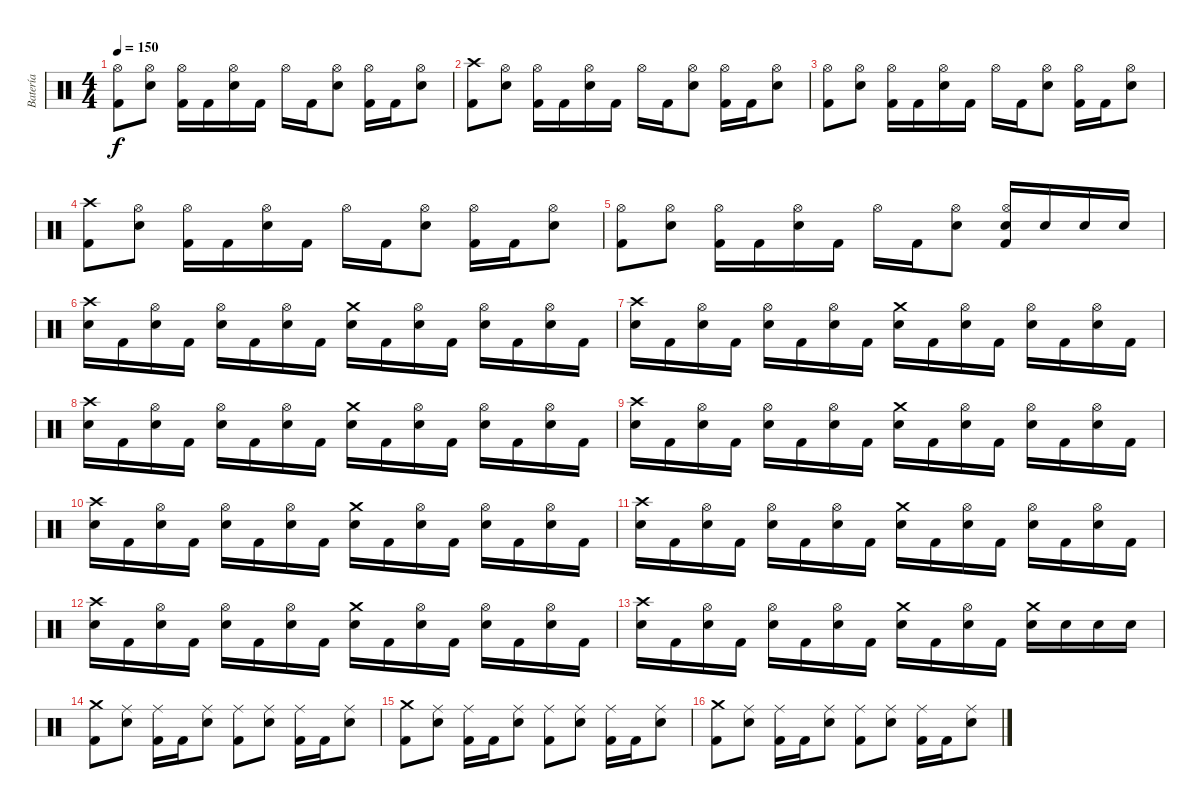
\track ("Batería" "Batería") {instrument percussion}
\staff {score}
\articulation defaults
\ts (4 4)
\tempo 150
\clef neutral
\ks c
("Kick (hit) 2" "Hi-Hat (open)").8{dy f} ("Electric Snare (hit)" "Hi-Hat (open)").8 ("Kick (hit) 2" "Hi-Hat (open)").16 "Kick (hit) 2".16 ("Electric Snare (hit)" "Hi-Hat (open)").16 "Kick (hit) 2".16 "Hi-Hat (open)".16 "Kick (hit) 2".16 ("Electric Snare (hit)" "Hi-Hat (open)").8 ("Kick (hit) 2" "Hi-Hat (open)").16 "Kick (hit) 2".16 ("Electric Snare (hit)" "Hi-Hat (open)").8 |
("Kick (hit) 2" "Crash high (hit)").8 ("Electric Snare (hit)" "Hi-Hat (open)").8 ("Kick (hit) 2" "Hi-Hat (open)").16 "Kick (hit) 2".16 ("Electric Snare (hit)" "Hi-Hat (open)").16 "Kick (hit) 2".16 "Hi-Hat (open)".16 "Kick (hit) 2".16 ("Electric Snare (hit)" "Hi-Hat (open)").8 ("Kick (hit) 2" "Hi-Hat (open)").16 "Kick (hit) 2".16 ("Electric Snare (hit)" "Hi-Hat (open)").8 |
("Kick (hit) 2" "Hi-Hat (open)").8 ("Electric Snare (hit)" "Hi-Hat (open)").8 ("Kick (hit) 2" "Hi-Hat (open)").16 "Kick (hit) 2".16 ("Electric Snare (hit)" "Hi-Hat (open)").16 "Kick (hit) 2".16 "Hi-Hat (open)".16 "Kick (hit) 2".16 ("Electric Snare (hit)" "Hi-Hat (open)").8 ("Kick (hit) 2" "Hi-Hat (open)").16 "Kick (hit) 2".16 ("Electric Snare (hit)" "Hi-Hat (open)").8 |
("Kick (hit) 2" "Crash high (hit)").8 ("Electric Snare (hit)" "Hi-Hat (open)").8 ("Kick (hit) 2" "Hi-Hat (open)").16 "Kick (hit) 2".16 ("Electric Snare (hit)" "Hi-Hat (open)").16 "Kick (hit) 2".16 "Hi-Hat (open)".16 "Kick (hit) 2".16 ("Electric Snare (hit)" "Hi-Hat (open)").8 ("Kick (hit) 2" "Hi-Hat (open)").16 "Kick (hit) 2".16 ("Electric Snare (hit)" "Hi-Hat (open)").8 |
("Kick (hit) 2" "Hi-Hat (open)").8 ("Electric Snare (hit)" "Hi-Hat (open)").8 ("Kick (hit) 2" "Hi-Hat (open)").16 "Kick (hit) 2".16 ("Electric Snare (hit)" "Hi-Hat (open)").16 "Kick (hit) 2".16 "Hi-Hat (open)".16 "Kick (hit) 2".16 ("Electric Snare (hit)" "Hi-Hat (open)").8 ("Kick (hit) 2" "Electric Snare (hit)" "Hi-Hat (open)").16 "Electric Snare (hit)".16 "Electric Snare (hit)".16 "Electric Snare (hit)".16 |
("Electric Snare (hit)" "Crash high (hit)").16 "Kick (hit) 2".16 ("Electric Snare (hit)" "Hi-Hat (open)").16 "Kick (hit) 2".16 ("Electric Snare (hit)" "Hi-Hat (open)").16 "Kick (hit) 2".16 ("Electric Snare (hit)" "Hi-Hat (open)").16 "Kick (hit) 2".16 ("Electric Snare (hit)" "Crash medium (hit)").16 "Kick (hit) 2".16 ("Electric Snare (hit)" "Hi-Hat (open)").16 "Kick (hit) 2".16 ("Electric Snare (hit)" "Hi-Hat (open)").16 "Kick (hit) 2".16 ("Electric Snare (hit)" "Hi-Hat (open)").16 "Kick (hit) 2".16 |
("Electric Snare (hit)" "Crash high (hit)").16 "Kick (hit) 2".16 ("Electric Snare (hit)" "Hi-Hat (open)").16 "Kick (hit) 2".16 ("Electric Snare (hit)" "Hi-Hat (open)").16 "Kick (hit) 2".16 ("Electric Snare (hit)" "Hi-Hat (open)").16 "Kick (hit) 2".16 ("Electric Snare (hit)" "Crash medium (hit)").16 "Kick (hit) 2".16 ("Electric Snare (hit)" "Hi-Hat (open)").16 "Kick (hit) 2".16 ("Electric Snare (hit)" "Hi-Hat (open)").16 "Kick (hit) 2".16 ("Electric Snare (hit)" "Hi-Hat (open)").16 "Kick (hit) 2".16 |
("Electric Snare (hit)" "Crash high (hit)").16 "Kick (hit) 2".16 ("Electric Snare (hit)" "Hi-Hat (open)").16 "Kick (hit) 2".16 ("Electric Snare (hit)" "Hi-Hat (open)").16 "Kick (hit) 2".16 ("Electric Snare (hit)" "Hi-Hat (open)").16 "Kick (hit) 2".16 ("Electric Snare (hit)" "Crash medium (hit)").16 "Kick (hit) 2".16 ("Electric Snare (hit)" "Hi-Hat (open)").16 "Kick (hit) 2".16 ("Electric Snare (hit)" "Hi-Hat (open)").16 "Kick (hit) 2".16 ("Electric Snare (hit)" "Hi-Hat (open)").16 "Kick (hit) 2".16 |
("Electric Snare (hit)" "Crash high (hit)").16 "Kick (hit) 2".16 ("Electric Snare (hit)" "Hi-Hat (open)").16 "Kick (hit) 2".16 ("Electric Snare (hit)" "Hi-Hat (open)").16 "Kick (hit) 2".16 ("Electric Snare (hit)" "Hi-Hat (open)").16 "Kick (hit) 2".16 ("Electric Snare (hit)" "Crash medium (hit)").16 "Kick (hit) 2".16 ("Electric Snare (hit)" "Hi-Hat (open)").16 "Kick (hit) 2".16 ("Electric Snare (hit)" "Hi-Hat (open)").16 "Kick (hit) 2".16 ("Electric Snare (hit)" "Hi-Hat (open)").16 "Kick (hit) 2".16 |
("Electric Snare (hit)" "Crash high (hit)").16 "Kick (hit) 2".16 ("Electric Snare (hit)" "Hi-Hat (open)").16 "Kick (hit) 2".16 ("Electric Snare (hit)" "Hi-Hat (open)").16 "Kick (hit) 2".16 ("Electric Snare (hit)" "Hi-Hat (open)").16 "Kick (hit) 2".16 ("Electric Snare (hit)" "Crash medium (hit)").16 "Kick (hit) 2".16 ("Electric Snare (hit)" "Hi-Hat (open)").16 "Kick (hit) 2".16 ("Electric Snare (hit)" "Hi-Hat (open)").16 "Kick (hit) 2".16 ("Electric Snare (hit)" "Hi-Hat (open)").16 "Kick (hit) 2".16 |
("Electric Snare (hit)" "Crash high (hit)").16 "Kick (hit) 2".16 ("Electric Snare (hit)" "Hi-Hat (open)").16 "Kick (hit) 2".16 ("Electric Snare (hit)" "Hi-Hat (open)").16 "Kick (hit) 2".16 ("Electric Snare (hit)" "Hi-Hat (open)").16 "Kick (hit) 2".16 ("Electric Snare (hit)" "Crash medium (hit)").16 "Kick (hit) 2".16 ("Electric Snare (hit)" "Hi-Hat (open)").16 "Kick (hit) 2".16 ("Electric Snare (hit)" "Hi-Hat (open)").16 "Kick (hit) 2".16 ("Electric Snare (hit)" "Hi-Hat (open)").16 "Kick (hit) 2".16 |
("Electric Snare (hit)" "Crash high (hit)").16 "Kick (hit) 2".16 ("Electric Snare (hit)" "Hi-Hat (open)").16 "Kick (hit) 2".16 ("Electric Snare (hit)" "Hi-Hat (open)").16 "Kick (hit) 2".16 ("Electric Snare (hit)" "Hi-Hat (open)").16 "Kick (hit) 2".16 ("Electric Snare (hit)" "Crash medium (hit)").16 "Kick (hit) 2".16 ("Electric Snare (hit)" "Hi-Hat (open)").16 "Kick (hit) 2".16 ("Electric Snare (hit)" "Hi-Hat (open)").16 "Kick (hit) 2".16 ("Electric Snare (hit)" "Hi-Hat (open)").16 "Kick (hit) 2".16 |
("Electric Snare (hit)" "Crash high (hit)").16 "Kick (hit) 2".16 ("Electric Snare (hit)" "Hi-Hat (open)").16 "Kick (hit) 2".16 ("Electric Snare (hit)" "Hi-Hat (open)").16 "Kick (hit) 2".16 ("Electric Snare (hit)" "Hi-Hat (open)").16 "Kick (hit) 2".16 ("Electric Snare (hit)" "Crash medium (hit)").16 "Kick (hit) 2".16 ("Electric Snare (hit)" "Hi-Hat (open)").16 "Kick (hit) 2".16 ("Electric Snare (hit)" "Crash medium (hit)").16 "Electric Snare (hit)".16 "Electric Snare (hit)".16 "Electric Snare (hit)".16 |
("Kick (hit) 2" "Crash medium (hit)").8 ("Electric Snare (hit)" "Ride (middle)").8 ("Kick (hit) 2" "Ride (middle)").16 "Kick (hit) 2".16 ("Electric Snare (hit)" "Ride (middle)").8 ("Kick (hit) 2" "Ride (middle)").8 ("Electric Snare (hit)" "Ride (middle)").8 ("Kick (hit) 2" "Ride (middle)").16 "Kick (hit) 2".16 ("Electric Snare (hit)" "Ride (middle)").8 |
("Kick (hit) 2" "Crash medium (hit)").8 ("Electric Snare (hit)" "Ride (middle)").8 ("Kick (hit) 2" "Ride (middle)").16 "Kick (hit) 2".16 ("Electric Snare (hit)" "Ride (middle)").8 ("Kick (hit) 2" "Ride (middle)").8 ("Electric Snare (hit)" "Ride (middle)").8 ("Kick (hit) 2" "Ride (middle)").16 "Kick (hit) 2".16 ("Electric Snare (hit)" "Ride (middle)").8 |
("Kick (hit) 2" "Crash medium (hit)").8 ("Electric Snare (hit)" "Ride (middle)").8 ("Kick (hit) 2" "Ride (middle)").16 "Kick (hit) 2".16 ("Electric Snare (hit)" "Ride (middle)").8 ("Kick (hit) 2" "Ride (middle)").8 ("Electric Snare (hit)" "Ride (middle)").8 ("Kick (hit) 2" "Ride (middle)").16 "Kick (hit) 2".16 ("Electric Snare (hit)" "Ride (middle)").8
